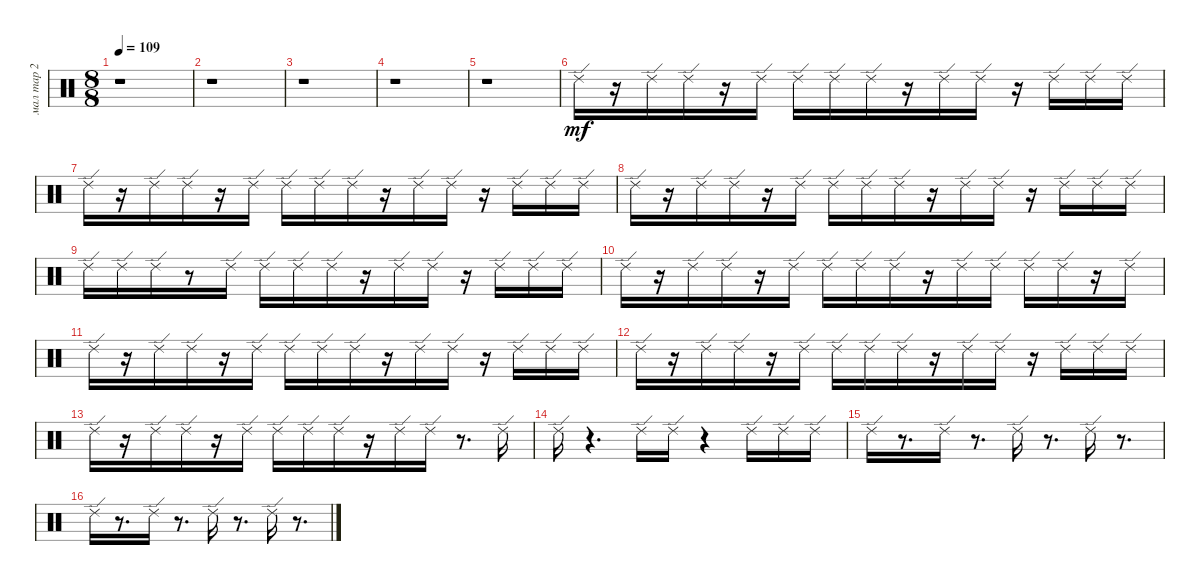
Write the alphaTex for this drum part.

\track ("мал тар 2" "мал тар 2") {instrument percussion}
\staff {score}
\articulation defaults
\ts (8 8)
\tempo 109
\clef neutral
\ks c
r.1{dy mf} |
r.1 |
r.1 |
r.1 |
r.1 |
"Ride (edge) 2".16 r.16 "Ride (edge) 2".16 "Ride (edge) 2".16 r.16 "Ride (edge) 2".16 "Ride (edge) 2".16 "Ride (edge) 2".16 "Ride (edge) 2".16 r.16 "Ride (edge) 2".16 "Ride (edge) 2".16 r.16 "Ride (edge) 2".16 "Ride (edge) 2".16 "Ride (edge) 2".16 |
"Ride (edge) 2".16 r.16 "Ride (edge) 2".16 "Ride (edge) 2".16 r.16 "Ride (edge) 2".16 "Ride (edge) 2".16 "Ride (edge) 2".16 "Ride (edge) 2".16 r.16 "Ride (edge) 2".16 "Ride (edge) 2".16 r.16 "Ride (edge) 2".16 "Ride (edge) 2".16 "Ride (edge) 2".16 |
"Ride (edge) 2".16 r.16 "Ride (edge) 2".16 "Ride (edge) 2".16 r.16 "Ride (edge) 2".16 "Ride (edge) 2".16 "Ride (edge) 2".16 "Ride (edge) 2".16 r.16 "Ride (edge) 2".16 "Ride (edge) 2".16 r.16 "Ride (edge) 2".16 "Ride (edge) 2".16 "Ride (edge) 2".16 |
"Ride (edge) 2".16 "Ride (edge) 2".16 "Ride (edge) 2".16 r.8 "Ride (edge) 2".16 "Ride (edge) 2".16 "Ride (edge) 2".16 "Ride (edge) 2".16 r.16 "Ride (edge) 2".16 "Ride (edge) 2".16 r.16 "Ride (edge) 2".16 "Ride (edge) 2".16 "Ride (edge) 2".16 |
"Ride (edge) 2".16 r.16 "Ride (edge) 2".16 "Ride (edge) 2".16 r.16 "Ride (edge) 2".16 "Ride (edge) 2".16 "Ride (edge) 2".16 "Ride (edge) 2".16 r.16 "Ride (edge) 2".16 "Ride (edge) 2".16 "Ride (edge) 2".16 "Ride (edge) 2".16 r.16 "Ride (edge) 2".16 |
"Ride (edge) 2".16 r.16 "Ride (edge) 2".16 "Ride (edge) 2".16 r.16 "Ride (edge) 2".16 "Ride (edge) 2".16 "Ride (edge) 2".16 "Ride (edge) 2".16 r.16 "Ride (edge) 2".16 "Ride (edge) 2".16 r.16 "Ride (edge) 2".16 "Ride (edge) 2".16 "Ride (edge) 2".16 |
"Ride (edge) 2".16 r.16 "Ride (edge) 2".16 "Ride (edge) 2".16 r.16 "Ride (edge) 2".16 "Ride (edge) 2".16 "Ride (edge) 2".16 "Ride (edge) 2".16 r.16 "Ride (edge) 2".16 "Ride (edge) 2".16 r.16 "Ride (edge) 2".16 "Ride (edge) 2".16 "Ride (edge) 2".16 |
"Ride (edge) 2".16 r.16 "Ride (edge) 2".16 "Ride (edge) 2".16 r.16 "Ride (edge) 2".16 "Ride (edge) 2".16 "Ride (edge) 2".16 "Ride (edge) 2".16 r.16 "Ride (edge) 2".16 "Ride (edge) 2".16 r.8{d} "Ride (edge) 2".16 |
"Ride (edge) 2".16 r.4{d} "Ride (edge) 2".16 "Ride (edge) 2".16 r.4 "Ride (edge) 2".16 "Ride (edge) 2".16 "Ride (edge) 2".16 |
"Ride (edge) 2".16 r.8{d} "Ride (edge) 2".16 r.8{d} "Ride (edge) 2".16 r.8{d} "Ride (edge) 2".16 r.8{d} |
"Ride (edge) 2".16 r.8{d} "Ride (edge) 2".16 r.8{d} "Ride (edge) 2".16 r.8{d} "Ride (edge) 2".16 r.8{d}
